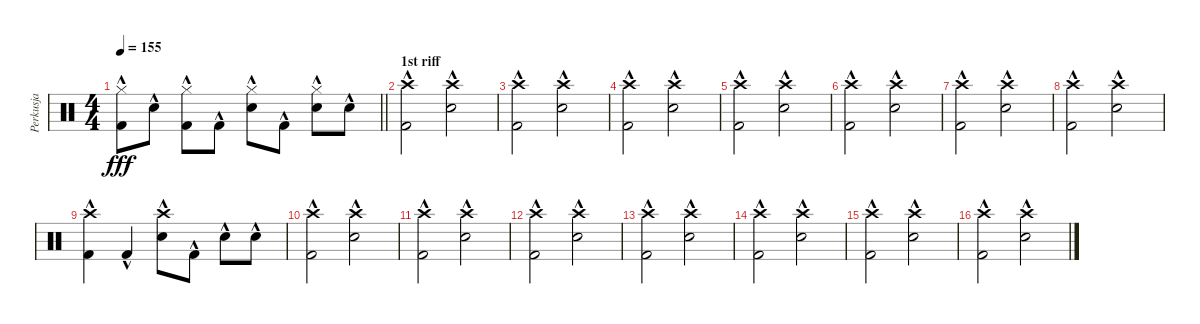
\track ("Perkusja" "Perkusja") {instrument percussion}
\staff {score}
\articulation defaults
\ts (4 4)
\tempo 155
\clef neutral
\barLineRight lightlight
\ks c
("Hi-Hat (closed)" "Kick (hit) 2"{hac}).8{dy fff} "Electric Snare (hit)"{hac}.8 ("Hi-Hat (closed)" "Kick (hit) 2"{hac}).8 "Kick (hit) 2"{hac}.8 ("Hi-Hat (closed)" "Electric Snare (hit)"{hac}).8 "Kick (hit) 2"{hac}.8 ("Hi-Hat (closed)" "Electric Snare (hit)"{hac}).8 "Electric Snare (hit)"{hac}.8 |
\section ("" "1st riff")
("Crash high (hit)" "Kick (hit) 2"{hac}).2 ("Crash high (hit)" "Electric Snare (hit)"{hac}).2 |
("Crash high (hit)" "Kick (hit) 2"{hac}).2 ("Crash high (hit)" "Electric Snare (hit)"{hac}).2 |
("Crash high (hit)" "Kick (hit) 2"{hac}).2 ("Crash high (hit)" "Electric Snare (hit)"{hac}).2 |
("Crash high (hit)" "Kick (hit) 2"{hac}).2 ("Crash high (hit)" "Electric Snare (hit)"{hac}).2 |
("Crash high (hit)" "Kick (hit) 2"{hac}).2 ("Crash high (hit)" "Electric Snare (hit)"{hac}).2 |
("Crash high (hit)" "Kick (hit) 2"{hac}).2 ("Crash high (hit)" "Electric Snare (hit)"{hac}).2 |
("Crash high (hit)" "Kick (hit) 2"{hac}).2 ("Crash high (hit)" "Electric Snare (hit)"{hac}).2 |
("Crash high (hit)" "Kick (hit) 2"{hac}).4 "Kick (hit) 2"{hac}.4 ("Crash high (hit)" "Electric Snare (hit)"{hac}).8 "Kick (hit) 2"{hac}.8 "Electric Snare (hit)"{hac}.8 "Electric Snare (hit)"{hac}.8 |
("Crash high (hit)" "Kick (hit) 2"{hac}).2 ("Crash high (hit)" "Electric Snare (hit)"{hac}).2 |
("Crash high (hit)" "Kick (hit) 2"{hac}).2 ("Crash high (hit)" "Electric Snare (hit)"{hac}).2 |
("Crash high (hit)" "Kick (hit) 2"{hac}).2 ("Crash high (hit)" "Electric Snare (hit)"{hac}).2 |
("Crash high (hit)" "Kick (hit) 2"{hac}).2 ("Crash high (hit)" "Electric Snare (hit)"{hac}).2 |
("Crash high (hit)" "Kick (hit) 2"{hac}).2 ("Crash high (hit)" "Electric Snare (hit)"{hac}).2 |
("Crash high (hit)" "Kick (hit) 2"{hac}).2 ("Crash high (hit)" "Electric Snare (hit)"{hac}).2 |
("Crash high (hit)" "Kick (hit) 2"{hac}).2 ("Crash high (hit)" "Electric Snare (hit)"{hac}).2
